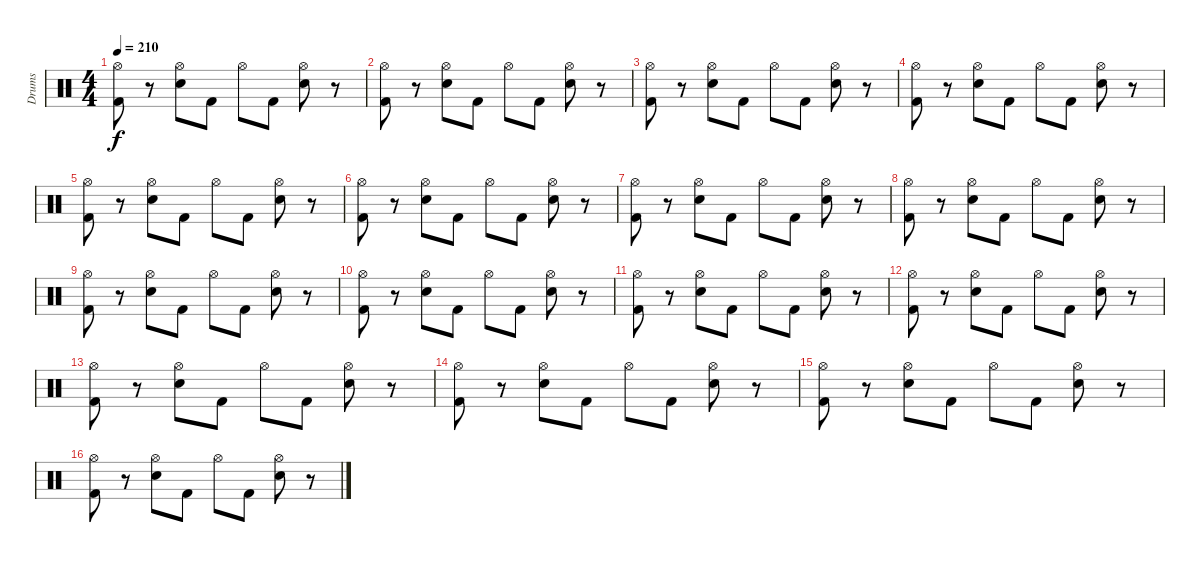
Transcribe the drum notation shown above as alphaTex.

\track ("Drums" "Drums") {instrument percussion}
\staff {score}
\articulation defaults
\ts (4 4)
\tempo 210
\clef neutral
\ks c
("Hi-Hat (open)" "Kick (hit) 2").8{dy f} r.8 ("Hi-Hat (open)" "Electric Snare (hit)").8 "Kick (hit) 2".8 "Hi-Hat (open)".8 "Kick (hit) 2".8 ("Hi-Hat (open)" "Electric Snare (hit)").8 r.8 |
("Hi-Hat (open)" "Kick (hit) 2").8 r.8 ("Hi-Hat (open)" "Electric Snare (hit)").8 "Kick (hit) 2".8 "Hi-Hat (open)".8 "Kick (hit) 2".8 ("Hi-Hat (open)" "Electric Snare (hit)").8 r.8 |
("Hi-Hat (open)" "Kick (hit) 2").8 r.8 ("Hi-Hat (open)" "Electric Snare (hit)").8 "Kick (hit) 2".8 "Hi-Hat (open)".8 "Kick (hit) 2".8 ("Hi-Hat (open)" "Electric Snare (hit)").8 r.8 |
("Hi-Hat (open)" "Kick (hit) 2").8 r.8 ("Hi-Hat (open)" "Electric Snare (hit)").8 "Kick (hit) 2".8 "Hi-Hat (open)".8 "Kick (hit) 2".8 ("Hi-Hat (open)" "Electric Snare (hit)").8 r.8 |
("Hi-Hat (open)" "Kick (hit) 2").8 r.8 ("Hi-Hat (open)" "Electric Snare (hit)").8 "Kick (hit) 2".8 "Hi-Hat (open)".8 "Kick (hit) 2".8 ("Hi-Hat (open)" "Electric Snare (hit)").8 r.8 |
("Hi-Hat (open)" "Kick (hit) 2").8 r.8 ("Hi-Hat (open)" "Electric Snare (hit)").8 "Kick (hit) 2".8 "Hi-Hat (open)".8 "Kick (hit) 2".8 ("Hi-Hat (open)" "Electric Snare (hit)").8 r.8 |
("Hi-Hat (open)" "Kick (hit) 2").8 r.8 ("Hi-Hat (open)" "Electric Snare (hit)").8 "Kick (hit) 2".8 "Hi-Hat (open)".8 "Kick (hit) 2".8 ("Hi-Hat (open)" "Electric Snare (hit)").8 r.8 |
("Hi-Hat (open)" "Kick (hit) 2").8 r.8 ("Hi-Hat (open)" "Electric Snare (hit)").8 "Kick (hit) 2".8 "Hi-Hat (open)".8 "Kick (hit) 2".8 ("Hi-Hat (open)" "Electric Snare (hit)").8 r.8 |
("Hi-Hat (open)" "Kick (hit) 2").8 r.8 ("Hi-Hat (open)" "Electric Snare (hit)").8 "Kick (hit) 2".8 "Hi-Hat (open)".8 "Kick (hit) 2".8 ("Hi-Hat (open)" "Electric Snare (hit)").8 r.8 |
("Hi-Hat (open)" "Kick (hit) 2").8 r.8 ("Hi-Hat (open)" "Electric Snare (hit)").8 "Kick (hit) 2".8 "Hi-Hat (open)".8 "Kick (hit) 2".8 ("Hi-Hat (open)" "Electric Snare (hit)").8 r.8 |
("Hi-Hat (open)" "Kick (hit) 2").8 r.8 ("Hi-Hat (open)" "Electric Snare (hit)").8 "Kick (hit) 2".8 "Hi-Hat (open)".8 "Kick (hit) 2".8 ("Hi-Hat (open)" "Electric Snare (hit)").8 r.8 |
("Hi-Hat (open)" "Kick (hit) 2").8 r.8 ("Hi-Hat (open)" "Electric Snare (hit)").8 "Kick (hit) 2".8 "Hi-Hat (open)".8 "Kick (hit) 2".8 ("Hi-Hat (open)" "Electric Snare (hit)").8 r.8 |
("Hi-Hat (open)" "Kick (hit) 2").8 r.8 ("Hi-Hat (open)" "Electric Snare (hit)").8 "Kick (hit) 2".8 "Hi-Hat (open)".8 "Kick (hit) 2".8 ("Hi-Hat (open)" "Electric Snare (hit)").8 r.8 |
("Hi-Hat (open)" "Kick (hit) 2").8 r.8 ("Hi-Hat (open)" "Electric Snare (hit)").8 "Kick (hit) 2".8 "Hi-Hat (open)".8 "Kick (hit) 2".8 ("Hi-Hat (open)" "Electric Snare (hit)").8 r.8 |
("Hi-Hat (open)" "Kick (hit) 2").8 r.8 ("Hi-Hat (open)" "Electric Snare (hit)").8 "Kick (hit) 2".8 "Hi-Hat (open)".8 "Kick (hit) 2".8 ("Hi-Hat (open)" "Electric Snare (hit)").8 r.8 |
("Hi-Hat (open)" "Kick (hit) 2").8 r.8 ("Hi-Hat (open)" "Electric Snare (hit)").8 "Kick (hit) 2".8 "Hi-Hat (open)".8 "Kick (hit) 2".8 ("Hi-Hat (open)" "Electric Snare (hit)").8 r.8
